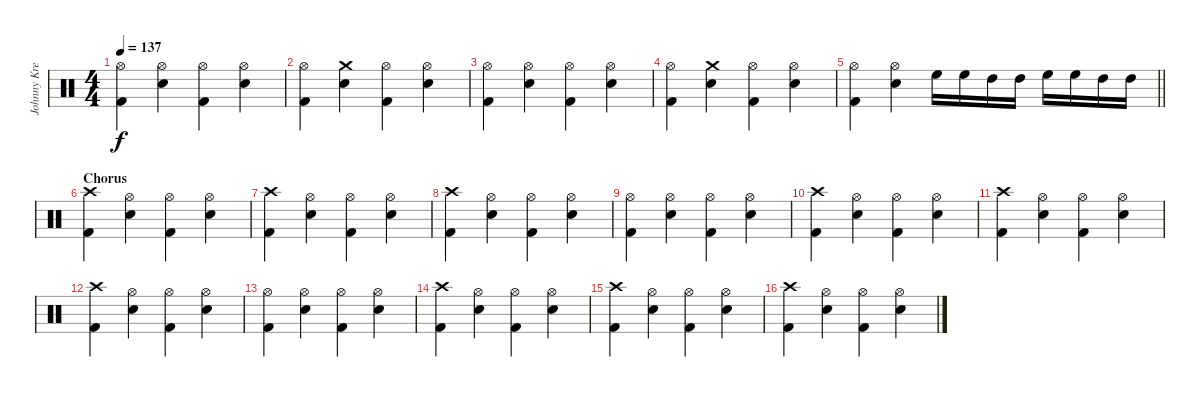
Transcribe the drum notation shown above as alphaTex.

\track ("Johnny Kreis" "Johnny Kre") {instrument percussion}
\staff {score}
\articulation defaults
\ts (4 4)
\tempo 137
\clef neutral
\ks c
("Hi-Hat (open)" "Kick (hit) 2").4{dy f} ("Hi-Hat (open)" "Snare (hit) 2").4 ("Hi-Hat (open)" "Kick (hit) 2").4 ("Hi-Hat (open)" "Snare (hit) 2").4 |
("Hi-Hat (open)" "Kick (hit) 2").4 ("Crash medium (hit)" "Snare (hit) 2").4 ("Hi-Hat (open)" "Kick (hit) 2").4 ("Hi-Hat (open)" "Snare (hit) 2").4 |
("Hi-Hat (open)" "Kick (hit) 2").4 ("Hi-Hat (open)" "Snare (hit) 2").4 ("Hi-Hat (open)" "Kick (hit) 2").4 ("Hi-Hat (open)" "Snare (hit) 2").4 |
("Hi-Hat (open)" "Kick (hit) 2").4 ("Crash medium (hit)" "Snare (hit) 2").4 ("Hi-Hat (open)" "Kick (hit) 2").4 ("Hi-Hat (open)" "Snare (hit) 2").4 |
\barLineRight lightlight
("Hi-Hat (open)" "Kick (hit) 2").4 ("Hi-Hat (open)" "Snare (hit) 2").4 "High Floor Tom (hit)".16 "High Floor Tom (hit)".16 "High Tom (hit)".16 "High Tom (hit)".16 "High Floor Tom (hit)".16 "High Floor Tom (hit)".16 "High Tom (hit)".16 "High Tom (hit)".16 |
\section ("" "Chorus")
("Crash high (hit)" "Kick (hit) 2").4 ("Hi-Hat (open)" "Snare (hit) 2").4 ("Hi-Hat (open)" "Kick (hit) 2").4 ("Hi-Hat (open)" "Snare (hit) 2").4 |
("Crash high (hit)" "Kick (hit) 2").4 ("Hi-Hat (open)" "Snare (hit) 2").4 ("Hi-Hat (open)" "Kick (hit) 2").4 ("Hi-Hat (open)" "Snare (hit) 2").4 |
("Crash high (hit)" "Kick (hit) 2").4 ("Hi-Hat (open)" "Snare (hit) 2").4 ("Hi-Hat (open)" "Kick (hit) 2").4 ("Hi-Hat (open)" "Snare (hit) 2").4 |
("Hi-Hat (open)" "Kick (hit) 2").4 ("Hi-Hat (open)" "Snare (hit) 2").4 ("Hi-Hat (open)" "Kick (hit) 2").4 ("Hi-Hat (open)" "Snare (hit) 2").4 |
("Crash high (hit)" "Kick (hit) 2").4 ("Hi-Hat (open)" "Snare (hit) 2").4 ("Hi-Hat (open)" "Kick (hit) 2").4 ("Hi-Hat (open)" "Snare (hit) 2").4 |
("Crash high (hit)" "Kick (hit) 2").4 ("Hi-Hat (open)" "Snare (hit) 2").4 ("Hi-Hat (open)" "Kick (hit) 2").4 ("Hi-Hat (open)" "Snare (hit) 2").4 |
("Crash high (hit)" "Kick (hit) 2").4 ("Hi-Hat (open)" "Snare (hit) 2").4 ("Hi-Hat (open)" "Kick (hit) 2").4 ("Hi-Hat (open)" "Snare (hit) 2").4 |
("Hi-Hat (open)" "Kick (hit) 2").4 ("Hi-Hat (open)" "Snare (hit) 2").4 ("Hi-Hat (open)" "Kick (hit) 2").4 ("Hi-Hat (open)" "Snare (hit) 2").4 |
("Crash high (hit)" "Kick (hit) 2").4 ("Hi-Hat (open)" "Snare (hit) 2").4 ("Hi-Hat (open)" "Kick (hit) 2").4 ("Hi-Hat (open)" "Snare (hit) 2").4 |
("Crash high (hit)" "Kick (hit) 2").4 ("Hi-Hat (open)" "Snare (hit) 2").4 ("Hi-Hat (open)" "Kick (hit) 2").4 ("Hi-Hat (open)" "Snare (hit) 2").4 |
("Crash high (hit)" "Kick (hit) 2").4 ("Hi-Hat (open)" "Snare (hit) 2").4 ("Hi-Hat (open)" "Kick (hit) 2").4 ("Hi-Hat (open)" "Snare (hit) 2").4
